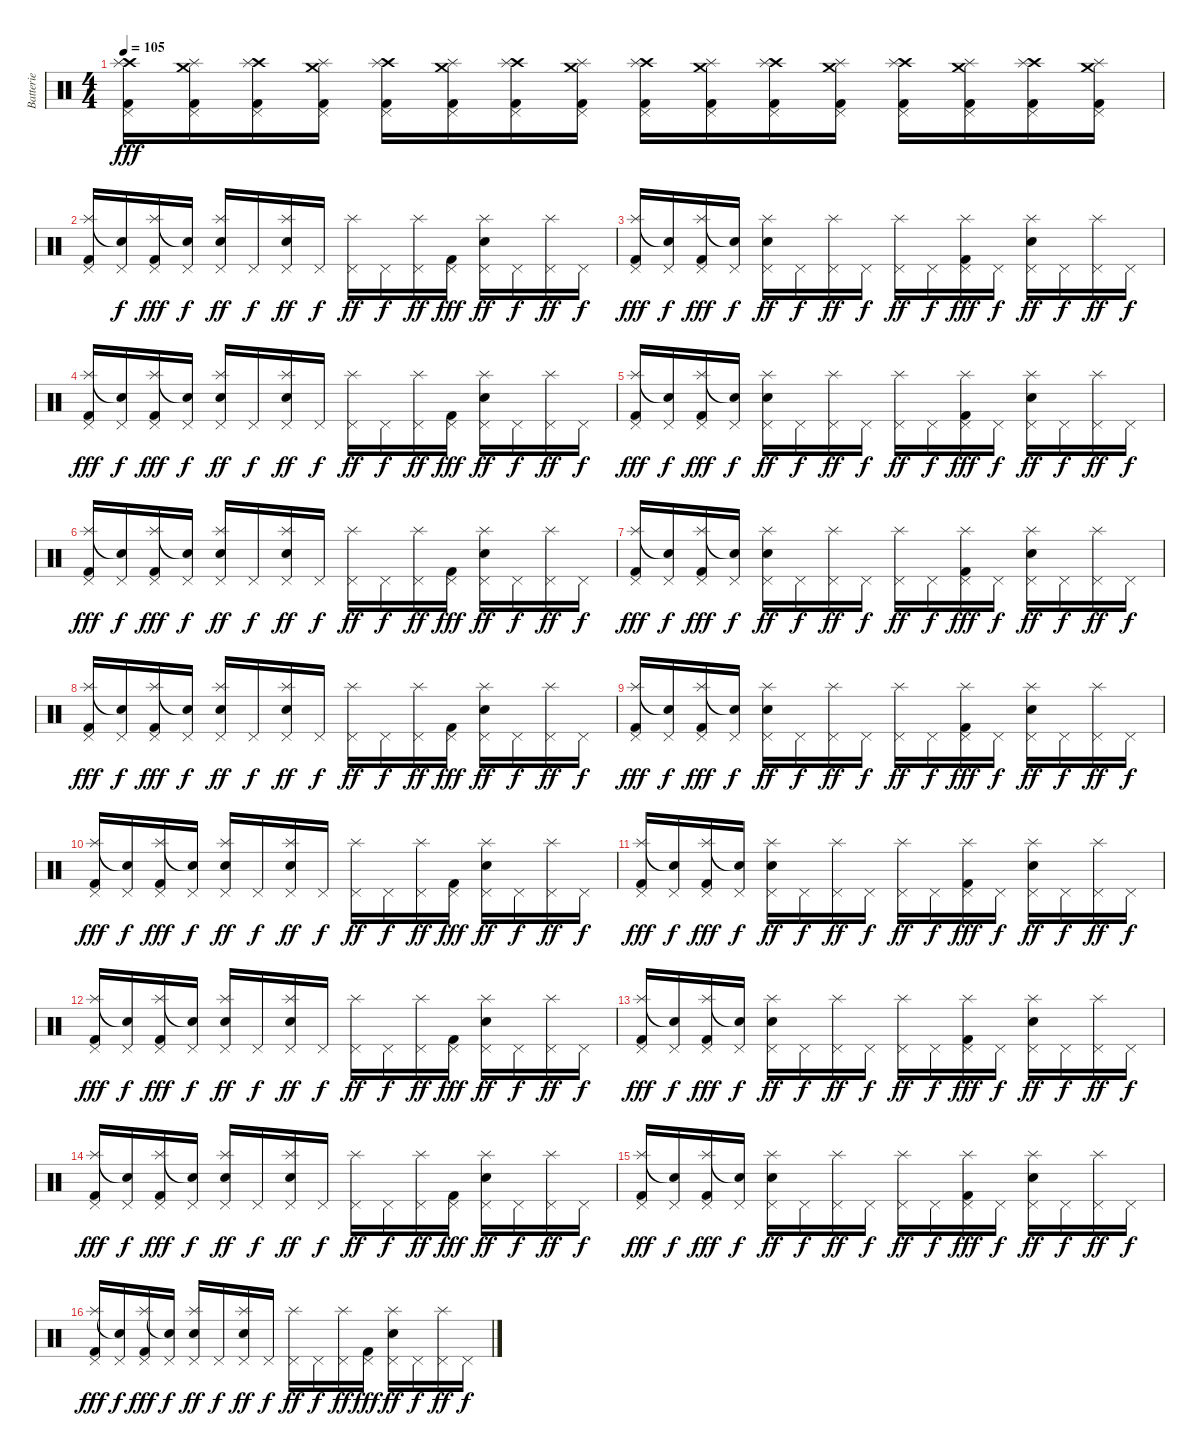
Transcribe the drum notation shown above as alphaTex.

\track ("Batterie" "Batterie") {instrument percussion}
\staff {score}
\articulation defaults
\ts (4 4)
\tempo 105
\clef neutral
\ks c
("Pedal Hi-Hat (hit)" "Crash high (hit)" "Splash (hit)" "Kick (hit) 2").16{dy fff} ("Pedal Hi-Hat (hit)" "Crash medium (hit)" "Splash (hit)" "Kick (hit) 2").16 ("Pedal Hi-Hat (hit)" "Crash high (hit)" "Splash (hit)" "Kick (hit) 2").16 ("Pedal Hi-Hat (hit)" "Crash medium (hit)" "Splash (hit)" "Kick (hit) 2").16 ("Pedal Hi-Hat (hit)" "Crash high (hit)" "Splash (hit)" "Kick (hit) 2").16 ("Pedal Hi-Hat (hit)" "Crash medium (hit)" "Splash (hit)" "Kick (hit) 2").16 ("Pedal Hi-Hat (hit)" "Crash high (hit)" "Splash (hit)" "Kick (hit) 2").16 ("Pedal Hi-Hat (hit)" "Crash medium (hit)" "Splash (hit)" "Kick (hit) 2").16 ("Pedal Hi-Hat (hit)" "Crash high (hit)" "Splash (hit)" "Kick (hit) 2").16 ("Pedal Hi-Hat (hit)" "Crash medium (hit)" "Splash (hit)" "Kick (hit) 2").16 ("Pedal Hi-Hat (hit)" "Crash high (hit)" "Splash (hit)" "Kick (hit) 2").16 ("Pedal Hi-Hat (hit)" "Crash medium (hit)" "Splash (hit)" "Kick (hit) 2").16 ("Pedal Hi-Hat (hit)" "Crash high (hit)" "Splash (hit)" "Kick (hit) 2").16 ("Pedal Hi-Hat (hit)" "Crash medium (hit)" "Splash (hit)" "Kick (hit) 2").16 ("Pedal Hi-Hat (hit)" "Crash high (hit)" "Splash (hit)" "Kick (hit) 2").16 ("Pedal Hi-Hat (hit)" "Crash medium (hit)" "Splash (hit)" "Kick (hit) 2").16 |
("Pedal Hi-Hat (hit)" "Splash (hit)" "Kick (hit) 2").16 ("Pedal Hi-Hat (hit)" "Snare (hit)"{t}).16{dy f} ("Pedal Hi-Hat (hit)" "Splash (hit)" "Kick (hit) 2").16{dy fff} ("Pedal Hi-Hat (hit)" "Snare (hit)"{t}).16{dy f} ("Pedal Hi-Hat (hit)" "Snare (hit) 2" "Splash (hit)").16{dy ff} "Pedal Hi-Hat (hit)".16{dy f} ("Pedal Hi-Hat (hit)" "Snare (hit) 2" "Splash (hit)").16{dy ff} "Pedal Hi-Hat (hit)".16{dy f} ("Pedal Hi-Hat (hit)" "Splash (hit)").16{dy ff} "Pedal Hi-Hat (hit)".16{dy f} ("Pedal Hi-Hat (hit)" "Splash (hit)").16{dy ff} ("Pedal Hi-Hat (hit)" "Kick (hit) 2").16{dy fff} ("Pedal Hi-Hat (hit)" "Snare (hit) 2" "Splash (hit)").16{dy ff} "Pedal Hi-Hat (hit)".16{dy f} ("Pedal Hi-Hat (hit)" "Splash (hit)").16{dy ff} "Pedal Hi-Hat (hit)".16{dy f} |
("Pedal Hi-Hat (hit)" "Splash (hit)" "Kick (hit) 2").16{dy fff} ("Pedal Hi-Hat (hit)" "Snare (hit)"{t}).16{dy f} ("Pedal Hi-Hat (hit)" "Splash (hit)" "Kick (hit) 2").16{dy fff} ("Pedal Hi-Hat (hit)" "Snare (hit)"{t}).16{dy f} ("Pedal Hi-Hat (hit)" "Snare (hit) 2" "Splash (hit)").16{dy ff} "Pedal Hi-Hat (hit)".16{dy f} ("Pedal Hi-Hat (hit)" "Splash (hit)").16{dy ff} "Pedal Hi-Hat (hit)".16{dy f} ("Pedal Hi-Hat (hit)" "Splash (hit)").16{dy ff} "Pedal Hi-Hat (hit)".16{dy f} ("Pedal Hi-Hat (hit)" "Splash (hit)" "Kick (hit) 2").16{dy fff} "Pedal Hi-Hat (hit)".16{dy f} ("Pedal Hi-Hat (hit)" "Snare (hit) 2" "Splash (hit)").16{dy ff} "Pedal Hi-Hat (hit)".16{dy f} ("Pedal Hi-Hat (hit)" "Splash (hit)").16{dy ff} "Pedal Hi-Hat (hit)".16{dy f} |
("Pedal Hi-Hat (hit)" "Splash (hit)" "Kick (hit) 2").16{dy fff} ("Pedal Hi-Hat (hit)" "Snare (hit)"{t}).16{dy f} ("Pedal Hi-Hat (hit)" "Splash (hit)" "Kick (hit) 2").16{dy fff} ("Pedal Hi-Hat (hit)" "Snare (hit)"{t}).16{dy f} ("Pedal Hi-Hat (hit)" "Snare (hit) 2" "Splash (hit)").16{dy ff} "Pedal Hi-Hat (hit)".16{dy f} ("Pedal Hi-Hat (hit)" "Snare (hit) 2" "Splash (hit)").16{dy ff} "Pedal Hi-Hat (hit)".16{dy f} ("Pedal Hi-Hat (hit)" "Splash (hit)").16{dy ff} "Pedal Hi-Hat (hit)".16{dy f} ("Pedal Hi-Hat (hit)" "Splash (hit)").16{dy ff} ("Pedal Hi-Hat (hit)" "Kick (hit) 2").16{dy fff} ("Pedal Hi-Hat (hit)" "Snare (hit) 2" "Splash (hit)").16{dy ff} "Pedal Hi-Hat (hit)".16{dy f} ("Pedal Hi-Hat (hit)" "Splash (hit)").16{dy ff} "Pedal Hi-Hat (hit)".16{dy f} |
("Pedal Hi-Hat (hit)" "Splash (hit)" "Kick (hit) 2").16{dy fff} ("Pedal Hi-Hat (hit)" "Snare (hit)"{t}).16{dy f} ("Pedal Hi-Hat (hit)" "Splash (hit)" "Kick (hit) 2").16{dy fff} ("Pedal Hi-Hat (hit)" "Snare (hit)"{t}).16{dy f} ("Pedal Hi-Hat (hit)" "Snare (hit) 2" "Splash (hit)").16{dy ff} "Pedal Hi-Hat (hit)".16{dy f} ("Pedal Hi-Hat (hit)" "Splash (hit)").16{dy ff} "Pedal Hi-Hat (hit)".16{dy f} ("Pedal Hi-Hat (hit)" "Splash (hit)").16{dy ff} "Pedal Hi-Hat (hit)".16{dy f} ("Pedal Hi-Hat (hit)" "Splash (hit)" "Kick (hit) 2").16{dy fff} "Pedal Hi-Hat (hit)".16{dy f} ("Pedal Hi-Hat (hit)" "Snare (hit) 2" "Splash (hit)").16{dy ff} "Pedal Hi-Hat (hit)".16{dy f} ("Pedal Hi-Hat (hit)" "Splash (hit)").16{dy ff} "Pedal Hi-Hat (hit)".16{dy f} |
("Pedal Hi-Hat (hit)" "Splash (hit)" "Kick (hit) 2").16{dy fff} ("Pedal Hi-Hat (hit)" "Snare (hit)"{t}).16{dy f} ("Pedal Hi-Hat (hit)" "Splash (hit)" "Kick (hit) 2").16{dy fff} ("Pedal Hi-Hat (hit)" "Snare (hit)"{t}).16{dy f} ("Pedal Hi-Hat (hit)" "Snare (hit) 2" "Splash (hit)").16{dy ff} "Pedal Hi-Hat (hit)".16{dy f} ("Pedal Hi-Hat (hit)" "Snare (hit) 2" "Splash (hit)").16{dy ff} "Pedal Hi-Hat (hit)".16{dy f} ("Pedal Hi-Hat (hit)" "Splash (hit)").16{dy ff} "Pedal Hi-Hat (hit)".16{dy f} ("Pedal Hi-Hat (hit)" "Splash (hit)").16{dy ff} ("Pedal Hi-Hat (hit)" "Kick (hit) 2").16{dy fff} ("Pedal Hi-Hat (hit)" "Snare (hit) 2" "Splash (hit)").16{dy ff} "Pedal Hi-Hat (hit)".16{dy f} ("Pedal Hi-Hat (hit)" "Splash (hit)").16{dy ff} "Pedal Hi-Hat (hit)".16{dy f} |
("Pedal Hi-Hat (hit)" "Splash (hit)" "Kick (hit) 2").16{dy fff} ("Pedal Hi-Hat (hit)" "Snare (hit)"{t}).16{dy f} ("Pedal Hi-Hat (hit)" "Splash (hit)" "Kick (hit) 2").16{dy fff} ("Pedal Hi-Hat (hit)" "Snare (hit)"{t}).16{dy f} ("Pedal Hi-Hat (hit)" "Snare (hit) 2" "Splash (hit)").16{dy ff} "Pedal Hi-Hat (hit)".16{dy f} ("Pedal Hi-Hat (hit)" "Splash (hit)").16{dy ff} "Pedal Hi-Hat (hit)".16{dy f} ("Pedal Hi-Hat (hit)" "Splash (hit)").16{dy ff} "Pedal Hi-Hat (hit)".16{dy f} ("Pedal Hi-Hat (hit)" "Splash (hit)" "Kick (hit) 2").16{dy fff} "Pedal Hi-Hat (hit)".16{dy f} ("Pedal Hi-Hat (hit)" "Snare (hit) 2" "Splash (hit)").16{dy ff} "Pedal Hi-Hat (hit)".16{dy f} ("Pedal Hi-Hat (hit)" "Splash (hit)").16{dy ff} "Pedal Hi-Hat (hit)".16{dy f} |
("Pedal Hi-Hat (hit)" "Splash (hit)" "Kick (hit) 2").16{dy fff} ("Pedal Hi-Hat (hit)" "Snare (hit)"{t}).16{dy f} ("Pedal Hi-Hat (hit)" "Splash (hit)" "Kick (hit) 2").16{dy fff} ("Pedal Hi-Hat (hit)" "Snare (hit)"{t}).16{dy f} ("Pedal Hi-Hat (hit)" "Snare (hit) 2" "Splash (hit)").16{dy ff} "Pedal Hi-Hat (hit)".16{dy f} ("Pedal Hi-Hat (hit)" "Snare (hit) 2" "Splash (hit)").16{dy ff} "Pedal Hi-Hat (hit)".16{dy f} ("Pedal Hi-Hat (hit)" "Splash (hit)").16{dy ff} "Pedal Hi-Hat (hit)".16{dy f} ("Pedal Hi-Hat (hit)" "Splash (hit)").16{dy ff} ("Pedal Hi-Hat (hit)" "Kick (hit) 2").16{dy fff} ("Pedal Hi-Hat (hit)" "Snare (hit) 2" "Splash (hit)").16{dy ff} "Pedal Hi-Hat (hit)".16{dy f} ("Pedal Hi-Hat (hit)" "Splash (hit)").16{dy ff} "Pedal Hi-Hat (hit)".16{dy f} |
("Pedal Hi-Hat (hit)" "Splash (hit)" "Kick (hit) 2").16{dy fff} ("Pedal Hi-Hat (hit)" "Snare (hit)"{t}).16{dy f} ("Pedal Hi-Hat (hit)" "Splash (hit)" "Kick (hit) 2").16{dy fff} ("Pedal Hi-Hat (hit)" "Snare (hit)"{t}).16{dy f} ("Pedal Hi-Hat (hit)" "Snare (hit) 2" "Splash (hit)").16{dy ff} "Pedal Hi-Hat (hit)".16{dy f} ("Pedal Hi-Hat (hit)" "Splash (hit)").16{dy ff} "Pedal Hi-Hat (hit)".16{dy f} ("Pedal Hi-Hat (hit)" "Splash (hit)").16{dy ff} "Pedal Hi-Hat (hit)".16{dy f} ("Pedal Hi-Hat (hit)" "Splash (hit)" "Kick (hit) 2").16{dy fff} "Pedal Hi-Hat (hit)".16{dy f} ("Pedal Hi-Hat (hit)" "Snare (hit) 2" "Splash (hit)").16{dy ff} "Pedal Hi-Hat (hit)".16{dy f} ("Pedal Hi-Hat (hit)" "Splash (hit)").16{dy ff} "Pedal Hi-Hat (hit)".16{dy f} |
("Pedal Hi-Hat (hit)" "Splash (hit)" "Kick (hit) 2").16{dy fff} ("Pedal Hi-Hat (hit)" "Snare (hit)"{t}).16{dy f} ("Pedal Hi-Hat (hit)" "Splash (hit)" "Kick (hit) 2").16{dy fff} ("Pedal Hi-Hat (hit)" "Snare (hit)"{t}).16{dy f} ("Pedal Hi-Hat (hit)" "Snare (hit) 2" "Splash (hit)").16{dy ff} "Pedal Hi-Hat (hit)".16{dy f} ("Pedal Hi-Hat (hit)" "Snare (hit) 2" "Splash (hit)").16{dy ff} "Pedal Hi-Hat (hit)".16{dy f} ("Pedal Hi-Hat (hit)" "Splash (hit)").16{dy ff} "Pedal Hi-Hat (hit)".16{dy f} ("Pedal Hi-Hat (hit)" "Splash (hit)").16{dy ff} ("Pedal Hi-Hat (hit)" "Kick (hit) 2").16{dy fff} ("Pedal Hi-Hat (hit)" "Snare (hit) 2" "Splash (hit)").16{dy ff} "Pedal Hi-Hat (hit)".16{dy f} ("Pedal Hi-Hat (hit)" "Splash (hit)").16{dy ff} "Pedal Hi-Hat (hit)".16{dy f} |
("Pedal Hi-Hat (hit)" "Splash (hit)" "Kick (hit) 2").16{dy fff} ("Pedal Hi-Hat (hit)" "Snare (hit)"{t}).16{dy f} ("Pedal Hi-Hat (hit)" "Splash (hit)" "Kick (hit) 2").16{dy fff} ("Pedal Hi-Hat (hit)" "Snare (hit)"{t}).16{dy f} ("Pedal Hi-Hat (hit)" "Snare (hit) 2" "Splash (hit)").16{dy ff} "Pedal Hi-Hat (hit)".16{dy f} ("Pedal Hi-Hat (hit)" "Splash (hit)").16{dy ff} "Pedal Hi-Hat (hit)".16{dy f} ("Pedal Hi-Hat (hit)" "Splash (hit)").16{dy ff} "Pedal Hi-Hat (hit)".16{dy f} ("Pedal Hi-Hat (hit)" "Splash (hit)" "Kick (hit) 2").16{dy fff} "Pedal Hi-Hat (hit)".16{dy f} ("Pedal Hi-Hat (hit)" "Snare (hit) 2" "Splash (hit)").16{dy ff} "Pedal Hi-Hat (hit)".16{dy f} ("Pedal Hi-Hat (hit)" "Splash (hit)").16{dy ff} "Pedal Hi-Hat (hit)".16{dy f} |
("Pedal Hi-Hat (hit)" "Splash (hit)" "Kick (hit) 2").16{dy fff} ("Pedal Hi-Hat (hit)" "Snare (hit)"{t}).16{dy f} ("Pedal Hi-Hat (hit)" "Splash (hit)" "Kick (hit) 2").16{dy fff} ("Pedal Hi-Hat (hit)" "Snare (hit)"{t}).16{dy f} ("Pedal Hi-Hat (hit)" "Snare (hit) 2" "Splash (hit)").16{dy ff} "Pedal Hi-Hat (hit)".16{dy f} ("Pedal Hi-Hat (hit)" "Snare (hit) 2" "Splash (hit)").16{dy ff} "Pedal Hi-Hat (hit)".16{dy f} ("Pedal Hi-Hat (hit)" "Splash (hit)").16{dy ff} "Pedal Hi-Hat (hit)".16{dy f} ("Pedal Hi-Hat (hit)" "Splash (hit)").16{dy ff} ("Pedal Hi-Hat (hit)" "Kick (hit) 2").16{dy fff} ("Pedal Hi-Hat (hit)" "Snare (hit) 2" "Splash (hit)").16{dy ff} "Pedal Hi-Hat (hit)".16{dy f} ("Pedal Hi-Hat (hit)" "Splash (hit)").16{dy ff} "Pedal Hi-Hat (hit)".16{dy f} |
("Pedal Hi-Hat (hit)" "Splash (hit)" "Kick (hit) 2").16{dy fff} ("Pedal Hi-Hat (hit)" "Snare (hit)"{t}).16{dy f} ("Pedal Hi-Hat (hit)" "Splash (hit)" "Kick (hit) 2").16{dy fff} ("Pedal Hi-Hat (hit)" "Snare (hit)"{t}).16{dy f} ("Pedal Hi-Hat (hit)" "Snare (hit) 2" "Splash (hit)").16{dy ff} "Pedal Hi-Hat (hit)".16{dy f} ("Pedal Hi-Hat (hit)" "Splash (hit)").16{dy ff} "Pedal Hi-Hat (hit)".16{dy f} ("Pedal Hi-Hat (hit)" "Splash (hit)").16{dy ff} "Pedal Hi-Hat (hit)".16{dy f} ("Pedal Hi-Hat (hit)" "Splash (hit)" "Kick (hit) 2").16{dy fff} "Pedal Hi-Hat (hit)".16{dy f} ("Pedal Hi-Hat (hit)" "Snare (hit) 2" "Splash (hit)").16{dy ff} "Pedal Hi-Hat (hit)".16{dy f} ("Pedal Hi-Hat (hit)" "Splash (hit)").16{dy ff} "Pedal Hi-Hat (hit)".16{dy f} |
("Pedal Hi-Hat (hit)" "Splash (hit)" "Kick (hit) 2").16{dy fff} ("Pedal Hi-Hat (hit)" "Snare (hit)"{t}).16{dy f} ("Pedal Hi-Hat (hit)" "Splash (hit)" "Kick (hit) 2").16{dy fff} ("Pedal Hi-Hat (hit)" "Snare (hit)"{t}).16{dy f} ("Pedal Hi-Hat (hit)" "Snare (hit) 2" "Splash (hit)").16{dy ff} "Pedal Hi-Hat (hit)".16{dy f} ("Pedal Hi-Hat (hit)" "Snare (hit) 2" "Splash (hit)").16{dy ff} "Pedal Hi-Hat (hit)".16{dy f} ("Pedal Hi-Hat (hit)" "Splash (hit)").16{dy ff} "Pedal Hi-Hat (hit)".16{dy f} ("Pedal Hi-Hat (hit)" "Splash (hit)").16{dy ff} ("Pedal Hi-Hat (hit)" "Kick (hit) 2").16{dy fff} ("Pedal Hi-Hat (hit)" "Snare (hit) 2" "Splash (hit)").16{dy ff} "Pedal Hi-Hat (hit)".16{dy f} ("Pedal Hi-Hat (hit)" "Splash (hit)").16{dy ff} "Pedal Hi-Hat (hit)".16{dy f} |
("Pedal Hi-Hat (hit)" "Splash (hit)" "Kick (hit) 2").16{dy fff} ("Pedal Hi-Hat (hit)" "Snare (hit)"{t}).16{dy f} ("Pedal Hi-Hat (hit)" "Splash (hit)" "Kick (hit) 2").16{dy fff} ("Pedal Hi-Hat (hit)" "Snare (hit)"{t}).16{dy f} ("Pedal Hi-Hat (hit)" "Snare (hit) 2" "Splash (hit)").16{dy ff} "Pedal Hi-Hat (hit)".16{dy f} ("Pedal Hi-Hat (hit)" "Splash (hit)").16{dy ff} "Pedal Hi-Hat (hit)".16{dy f} ("Pedal Hi-Hat (hit)" "Splash (hit)").16{dy ff} "Pedal Hi-Hat (hit)".16{dy f} ("Pedal Hi-Hat (hit)" "Splash (hit)" "Kick (hit) 2").16{dy fff} "Pedal Hi-Hat (hit)".16{dy f} ("Pedal Hi-Hat (hit)" "Snare (hit) 2" "Splash (hit)").16{dy ff} "Pedal Hi-Hat (hit)".16{dy f} ("Pedal Hi-Hat (hit)" "Splash (hit)").16{dy ff} "Pedal Hi-Hat (hit)".16{dy f} |
("Pedal Hi-Hat (hit)" "Splash (hit)" "Kick (hit) 2").16{dy fff} ("Pedal Hi-Hat (hit)" "Snare (hit)"{t}).16{dy f} ("Pedal Hi-Hat (hit)" "Splash (hit)" "Kick (hit) 2").16{dy fff} ("Pedal Hi-Hat (hit)" "Snare (hit)"{t}).16{dy f} ("Pedal Hi-Hat (hit)" "Snare (hit) 2" "Splash (hit)").16{dy ff} "Pedal Hi-Hat (hit)".16{dy f} ("Pedal Hi-Hat (hit)" "Snare (hit) 2" "Splash (hit)").16{dy ff} "Pedal Hi-Hat (hit)".16{dy f} ("Pedal Hi-Hat (hit)" "Splash (hit)").16{dy ff} "Pedal Hi-Hat (hit)".16{dy f} ("Pedal Hi-Hat (hit)" "Splash (hit)").16{dy ff} ("Pedal Hi-Hat (hit)" "Kick (hit) 2").16{dy fff} ("Pedal Hi-Hat (hit)" "Snare (hit) 2" "Splash (hit)").16{dy ff} "Pedal Hi-Hat (hit)".16{dy f} ("Pedal Hi-Hat (hit)" "Splash (hit)").16{dy ff} "Pedal Hi-Hat (hit)".16{dy f}
